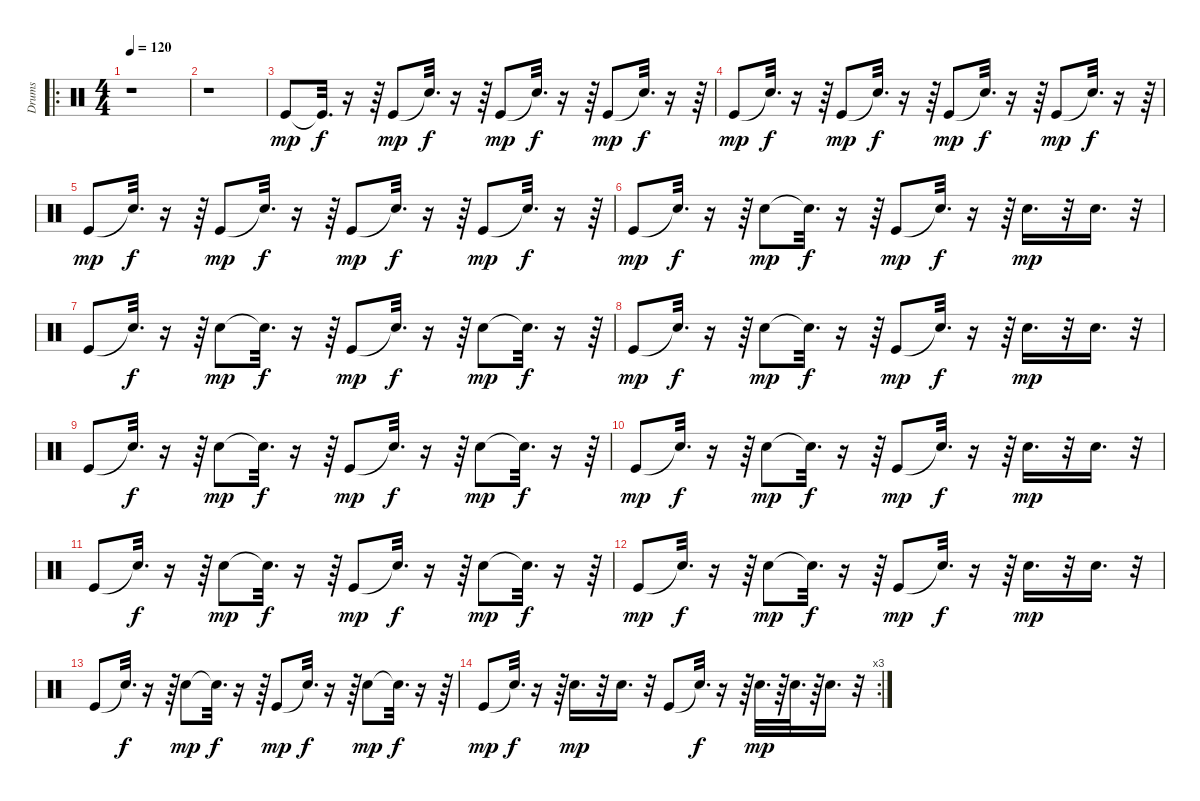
\track ("Drums" "Drums") {instrument percussion}
\staff {score}
\articulation defaults
\ro
\ts (4 4)
\tempo 120
\clef neutral
\ks c
r.1{dy mp} |
r.1 |
"Kick (hit)".8 "Kick (hit)"{t}.32{d dy f} r.16 r.64 "Kick (hit)".8{dy mp} "Snare (hit)"{t}.32{d dy f} r.16 r.64 "Kick (hit)".8{dy mp} "Snare (hit)"{t}.32{d dy f} r.16 r.64 "Kick (hit)".8{dy mp} "Snare (hit)"{t}.32{d dy f} r.16 r.64 |
"Kick (hit)".8{dy mp} "Snare (hit)"{t}.32{d dy f} r.16 r.64 "Kick (hit)".8{dy mp} "Snare (hit)"{t}.32{d dy f} r.16 r.64 "Kick (hit)".8{dy mp} "Snare (hit)"{t}.32{d dy f} r.16 r.64 "Kick (hit)".8{dy mp} "Snare (hit)"{t}.32{d dy f} r.16 r.64 |
"Kick (hit)".8{dy mp} "Snare (hit)"{t}.32{d dy f} r.16 r.64 "Kick (hit)".8{dy mp} "Snare (hit)"{t}.32{d dy f} r.16 r.64 "Kick (hit)".8{dy mp} "Snare (hit)"{t}.32{d dy f} r.16 r.64 "Kick (hit)".8{dy mp} "Snare (hit)"{t}.32{d dy f} r.16 r.64 |
"Kick (hit)".8{dy mp} "Snare (hit)"{t}.32{d dy f} r.16 r.64 "Electric Snare (hit)".8{dy mp} "Snare (hit)"{t}.32{d dy f} r.16 r.64 "Kick (hit)".8{dy mp} "Snare (hit)"{t}.32{d dy f} r.16 r.64 "Electric Snare (hit)".16{d dy mp} r.32 "Electric Snare (hit)".16{d} r.32 |
"Kick (hit)".8 "Snare (hit)"{t}.32{d dy f} r.16 r.64 "Electric Snare (hit)".8{dy mp} "Snare (hit)"{t}.32{d dy f} r.16 r.64 "Kick (hit)".8{dy mp} "Snare (hit)"{t}.32{d dy f} r.16 r.64 "Electric Snare (hit)".8{dy mp} "Snare (hit)"{t}.32{d dy f} r.16 r.64 |
"Kick (hit)".8{dy mp} "Snare (hit)"{t}.32{d dy f} r.16 r.64 "Electric Snare (hit)".8{dy mp} "Snare (hit)"{t}.32{d dy f} r.16 r.64 "Kick (hit)".8{dy mp} "Snare (hit)"{t}.32{d dy f} r.16 r.64 "Electric Snare (hit)".16{d dy mp} r.32 "Electric Snare (hit)".16{d} r.32 |
"Kick (hit)".8 "Snare (hit)"{t}.32{d dy f} r.16 r.64 "Electric Snare (hit)".8{dy mp} "Snare (hit)"{t}.32{d dy f} r.16 r.64 "Kick (hit)".8{dy mp} "Snare (hit)"{t}.32{d dy f} r.16 r.64 "Electric Snare (hit)".8{dy mp} "Snare (hit)"{t}.32{d dy f} r.16 r.64 |
"Kick (hit)".8{dy mp} "Snare (hit)"{t}.32{d dy f} r.16 r.64 "Electric Snare (hit)".8{dy mp} "Snare (hit)"{t}.32{d dy f} r.16 r.64 "Kick (hit)".8{dy mp} "Snare (hit)"{t}.32{d dy f} r.16 r.64 "Electric Snare (hit)".16{d dy mp} r.32 "Electric Snare (hit)".16{d} r.32 |
"Kick (hit)".8 "Snare (hit)"{t}.32{d dy f} r.16 r.64 "Electric Snare (hit)".8{dy mp} "Snare (hit)"{t}.32{d dy f} r.16 r.64 "Kick (hit)".8{dy mp} "Snare (hit)"{t}.32{d dy f} r.16 r.64 "Electric Snare (hit)".8{dy mp} "Snare (hit)"{t}.32{d dy f} r.16 r.64 |
"Kick (hit)".8{dy mp} "Snare (hit)"{t}.32{d dy f} r.16 r.64 "Electric Snare (hit)".8{dy mp} "Snare (hit)"{t}.32{d dy f} r.16 r.64 "Kick (hit)".8{dy mp} "Snare (hit)"{t}.32{d dy f} r.16 r.64 "Electric Snare (hit)".16{d dy mp} r.32 "Electric Snare (hit)".16{d} r.32 |
"Kick (hit)".8 "Snare (hit)"{t}.32{d dy f} r.16 r.64 "Electric Snare (hit)".8{dy mp} "Snare (hit)"{t}.32{d dy f} r.16 r.64 "Kick (hit)".8{dy mp} "Snare (hit)"{t}.32{d dy f} r.16 r.64 "Electric Snare (hit)".8{dy mp} "Snare (hit)"{t}.32{d dy f} r.16 r.64 |
\rc 3 "Kick (hit)".8{dy mp} "Snare (hit)"{t}.32{d dy f}
r.16 r.64 "Electric Snare (hit)".16{d dy mp} r.32 "Electric Snare (hit)".16{d} r.32 "Kick (hit)".8 "Snare (hit)"{t}.32{d dy f} r.16 r.64 "Electric Snare (hit)".32{d dy mp} r.64 "Electric Snare (hit)".32{d} r.64 "Electric Snare (hit)".16{d} r.32
